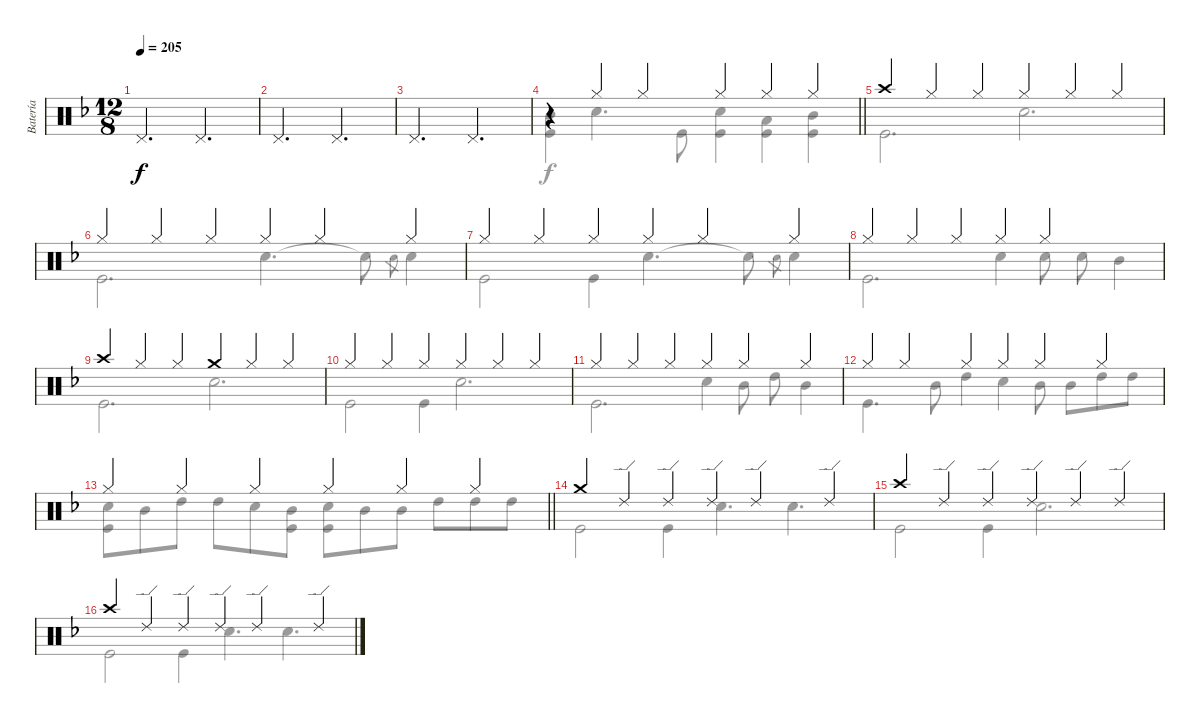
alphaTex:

\track ("Batería" "Batería") {instrument percussion}
\staff {score}
\articulation defaults
\voice
\ts (12 8)
\tempo 205
\clef neutral
\ks dminor "Pedal Hi-Hat (hit)".2{d dy f} "Pedal Hi-Hat (hit)".2{d}
|
"Pedal Hi-Hat (hit)".2{d} "Pedal Hi-Hat (hit)".2{d} |
"Pedal Hi-Hat (hit)".2{d} "Pedal Hi-Hat (hit)".2{d} |
\barLineRight lightlight
r.4 "Hi-Hat (closed)".4 "Hi-Hat (closed)".4 "Hi-Hat (closed)".4 "Hi-Hat (closed)".4 "Hi-Hat (closed)".4 |
"Crash high (hit)".4 "Hi-Hat (closed)".4 "Hi-Hat (closed)".4 "Hi-Hat (closed)".4 "Hi-Hat (closed)".4 "Hi-Hat (closed)".4 |
"Hi-Hat (closed)".4 "Hi-Hat (closed)".4 "Hi-Hat (closed)".4 "Hi-Hat (closed)".4 "Hi-Hat (closed)".4 "Hi-Hat (closed)".4 |
"Hi-Hat (closed)".4 "Hi-Hat (closed)".4 "Hi-Hat (closed)".4 "Hi-Hat (closed)".4 "Hi-Hat (closed)".4 "Hi-Hat (closed)".4 |
"Hi-Hat (closed)".4 "Hi-Hat (closed)".4 "Hi-Hat (closed)".4 "Hi-Hat (closed)".4 "Hi-Hat (closed)".2 |
"Crash high (hit)".4 "Hi-Hat (closed)".4 "Hi-Hat (closed)".4 "Crash medium (hit)".4 "Hi-Hat (closed)".4 "Hi-Hat (closed)".4 |
"Hi-Hat (closed)".4 "Hi-Hat (closed)".4 "Hi-Hat (closed)".4 "Hi-Hat (closed)".4 "Hi-Hat (closed)".4 "Hi-Hat (closed)".4 |
"Hi-Hat (closed)".4 "Hi-Hat (closed)".4 "Hi-Hat (closed)".4 "Hi-Hat (closed)".4 "Hi-Hat (closed)".4 "Hi-Hat (closed)".4 |
"Hi-Hat (closed)".4 "Hi-Hat (closed)".4 "Hi-Hat (closed)".4 "Hi-Hat (closed)".4 "Hi-Hat (closed)".4 "Hi-Hat (closed)".4 |
\barLineRight lightlight "Hi-Hat (closed)".4 "Hi-Hat (closed)".4 "Hi-Hat (closed)".4 "Hi-Hat (closed)".4 "Hi-Hat (closed)".4 "Hi-Hat (closed)".4
|
"Crash medium (hit)".4 "Ride (edge) 2".4 "Ride (edge) 2".4 "Ride (edge) 2".4 "Ride (edge) 2".4 "Ride (edge) 2".4 |
"Crash high (hit)".4 "Ride (edge) 2".4 "Ride (edge) 2".4 "Ride (edge) 2".4 "Ride (edge) 2".4 "Ride (edge) 2".4 |
"Crash high (hit)".4 "Ride (edge) 2".4 "Ride (edge) 2".4 "Ride (edge) 2".4 "Ride (edge) 2".4 "Ride (edge) 2".4
\voice
\clef neutral
\ottava regular
\simile none
\ks dminor
|
|
|
\barLineRight lightlight
("Mid Tom (hit)" "Kick (hit)").4 "Snare (hit) 2".4{d} "Kick (hit)".8 ("Snare (hit) 2" "Kick (hit)").4 ("Low Tom (hit)" "Kick (hit)").4 ("Mid Tom (hit)" "Kick (hit)").4 |
"Kick (hit)".2{d} "Snare (hit) 2".2{d} |
"Kick (hit)".2{d} "Snare (hit) 2".4{d} "Snare (hit)"{t}.8 "Snare (hit) 2".8{gr} "Snare (hit) 2".4 |
"Kick (hit)".2 "Kick (hit)".4 "Snare (hit) 2".4{d} "Snare (hit)"{t}.8 "Snare (hit) 2".8{gr} "Snare (hit) 2".4 |
"Kick (hit)".2{d} "Snare (hit) 2".4 "Snare (hit) 2".8 "Snare (hit) 2".8 "Mid Tom (hit)".4 |
"Kick (hit)".2{d} "Snare (hit) 2".2{d} |
"Kick (hit)".2 "Kick (hit)".4 "Snare (hit) 2".2{d} |
"Kick (hit)".2{d} "Snare (hit) 2".4 "Mid Tom (hit)".8 "High Tom (hit)".8 "Mid Tom (hit)".4 |
"Kick (hit)".4{d} "Mid Tom (hit)".8 "High Tom (hit)".4 "Snare (hit) 2".4 "Mid Tom (hit)".8 "Mid Tom (hit)".8 "High Tom (hit)".8 "High Tom (hit)".8 |
\barLineRight lightlight
("Snare (hit) 2" "Kick (hit)").8 "Mid Tom (hit)".8 "High Tom (hit)".8 "High Tom (hit)".8 "Snare (hit) 2".8 ("Mid Tom (hit)" "Kick (hit)").8 ("Snare (hit) 2" "Kick (hit)").8 "Mid Tom (hit)".8 "Mid Tom (hit)".8 "High Tom (hit)".8 "High Tom (hit)".8 "High Tom (hit)".8 |
"Kick (hit)".2 "Kick (hit)".4 "Snare (hit) 2".4{d} "Snare (hit) 2".4{d} |
"Kick (hit)".2 "Kick (hit)".4 "Snare (hit) 2".2{d} |
"Kick (hit)".2 "Kick (hit)".4 "Snare (hit) 2".4{d} "Snare (hit) 2".4{d}
